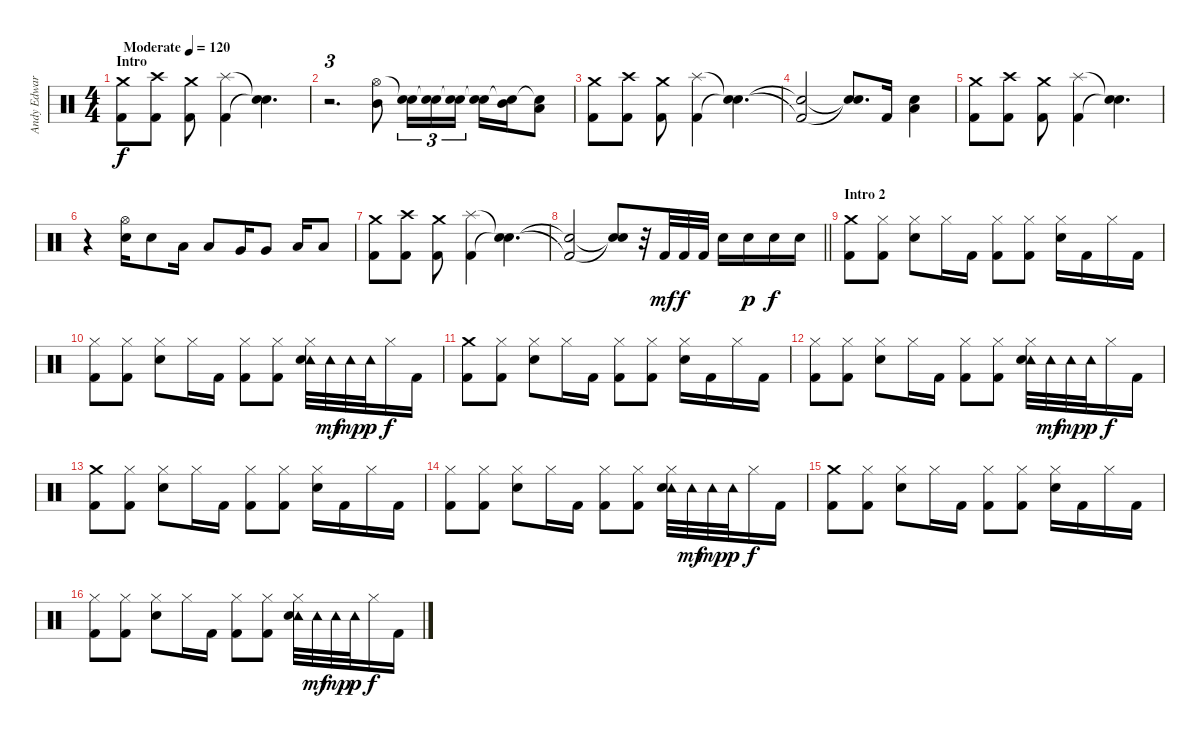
\track ("Andy Edwards" "Andy Edwar") {instrument percussion}
\staff {score}
\articulation defaults
\ts (4 4)
\section ("" "Intro")
\tempo (120 "Moderate")
\clef neutral
\ks c
("Crash medium (hit)" "Kick (hit) 2").8{dy f} ("Crash high (hit)" "Kick (hit) 2").8 ("Crash medium (hit)" "Kick (hit) 2").8 ("Splash (hit)" "Kick (hit) 2").4 ("Snare (hit)"{t} "Snare (hit)"{t}).4{d} |
r.2{d tu (3 2)} ("Hi-Hat (open)" "Mid Tom (hit)").8 ("Snare (hit)"{t} "Electric Snare (hit)").16{tu (3 2)} ("Snare (hit)"{t} "Electric Snare (hit)").16{tu (3 2)} ("Snare (hit)"{t} "Electric Snare (hit)").16{tu (3 2)} ("Snare (hit)"{t} "Electric Snare (hit)").16 ("Snare (hit)"{t} "Mid Tom (hit)").16 ("Snare (hit)"{t} "Low Tom (hit)").8 |
("Crash medium (hit)" "Kick (hit) 2").8 ("Crash high (hit)" "Kick (hit) 2").8 ("Crash medium (hit)" "Kick (hit) 2").8 ("Splash (hit)" "Kick (hit) 2").4 ("Snare (hit)"{t} "Snare (hit)"{t}).4{d} |
("Snare (hit)"{t} "Kick (hit) 2"{t}).2 ("Snare (hit)"{t} "Snare (hit)"{t}).8{d} "Kick (hit) 2".16 ("Low Floor Tom (hit)" "Electric Snare (hit)").4 |
("Crash medium (hit)" "Kick (hit) 2").8 ("Crash high (hit)" "Kick (hit) 2").8 ("Crash medium (hit)" "Kick (hit) 2").8 ("Splash (hit)" "Kick (hit) 2").4 ("Snare (hit)"{t} "Snare (hit)"{t}).4{d} |
r.4 ("Hi-Hat (open)" "Electric Snare (hit)").16 "Electric Snare (hit)".8 "Low Tom (hit)".16 "Low Tom (hit)".8 "Very Low Tom (hit)".16 "Very Low Tom (hit)".8 "Low Floor Tom (hit)".16 "Low Floor Tom (hit)".8 |
("Crash medium (hit)" "Kick (hit) 2").8 ("Crash high (hit)" "Kick (hit) 2").8 ("Crash medium (hit)" "Kick (hit) 2").8 ("Splash (hit)" "Kick (hit) 2").4 ("Snare (hit)"{t} "Snare (hit)"{t}).4{d} |
\barLineRight lightlight
("Snare (hit)"{t} "Kick (hit) 2"{t}).2 ("Snare (hit)"{t} "Snare (hit)"{t}).8 r.32 "Kick (hit) 2".32{dy mf} "Kick (hit) 2".32{dy f} "Kick (hit) 2".32 "Electric Snare (hit)".16 "Electric Snare (hit)".16{dy p} "Electric Snare (hit)".16{dy f} "Electric Snare (hit)".16 |
\section ("" "Intro 2")
("Crash medium (hit)" "Kick (hit) 2").8 ("Hi-Hat (closed)" "Kick (hit) 2").8 ("Hi-Hat (closed)" "Electric Snare (hit)").8 "Hi-Hat (closed)".16 "Kick (hit) 2".16 ("Hi-Hat (closed)" "Kick (hit) 2").8 ("Hi-Hat (closed)" "Kick (hit) 2").8 ("Hi-Hat (closed)" "Electric Snare (hit)").16 "Kick (hit) 2".16 "Hi-Hat (closed)".16 "Kick (hit) 2".16 |
("Hi-Hat (closed)" "Kick (hit) 2").8 ("Hi-Hat (closed)" "Kick (hit) 2").8 ("Hi-Hat (closed)" "Electric Snare (hit)").8 "Hi-Hat (closed)".16 "Kick (hit) 2".16 ("Hi-Hat (closed)" "Kick (hit) 2").8 ("Hi-Hat (closed)" "Kick (hit) 2").8 ("Hi-Hat (closed)" "Tambourine (hit)" "Electric Snare (hit)").32 "Tambourine (hit)".32{dy mf} "Tambourine (hit)".32{dy mp} "Tambourine (hit)".32{dy p} "Hi-Hat (closed)".16{dy f} "Kick (hit) 2".16 |
("Crash medium (hit)" "Kick (hit) 2").8 ("Hi-Hat (closed)" "Kick (hit) 2").8 ("Hi-Hat (closed)" "Electric Snare (hit)").8 "Hi-Hat (closed)".16 "Kick (hit) 2".16 ("Hi-Hat (closed)" "Kick (hit) 2").8 ("Hi-Hat (closed)" "Kick (hit) 2").8 ("Hi-Hat (closed)" "Electric Snare (hit)").16 "Kick (hit) 2".16 "Hi-Hat (closed)".16 "Kick (hit) 2".16 |
("Hi-Hat (closed)" "Kick (hit) 2").8 ("Hi-Hat (closed)" "Kick (hit) 2").8 ("Hi-Hat (closed)" "Electric Snare (hit)").8 "Hi-Hat (closed)".16 "Kick (hit) 2".16 ("Hi-Hat (closed)" "Kick (hit) 2").8 ("Hi-Hat (closed)" "Kick (hit) 2").8 ("Hi-Hat (closed)" "Tambourine (hit)" "Electric Snare (hit)").32 "Tambourine (hit)".32{dy mf} "Tambourine (hit)".32{dy mp} "Tambourine (hit)".32{dy p} "Hi-Hat (closed)".16{dy f} "Kick (hit) 2".16 |
("Crash medium (hit)" "Kick (hit) 2").8 ("Hi-Hat (closed)" "Kick (hit) 2").8 ("Hi-Hat (closed)" "Electric Snare (hit)").8 "Hi-Hat (closed)".16 "Kick (hit) 2".16 ("Hi-Hat (closed)" "Kick (hit) 2").8 ("Hi-Hat (closed)" "Kick (hit) 2").8 ("Hi-Hat (closed)" "Electric Snare (hit)").16 "Kick (hit) 2".16 "Hi-Hat (closed)".16 "Kick (hit) 2".16 |
("Hi-Hat (closed)" "Kick (hit) 2").8 ("Hi-Hat (closed)" "Kick (hit) 2").8 ("Hi-Hat (closed)" "Electric Snare (hit)").8 "Hi-Hat (closed)".16 "Kick (hit) 2".16 ("Hi-Hat (closed)" "Kick (hit) 2").8 ("Hi-Hat (closed)" "Kick (hit) 2").8 ("Hi-Hat (closed)" "Tambourine (hit)" "Electric Snare (hit)").32 "Tambourine (hit)".32{dy mf} "Tambourine (hit)".32{dy mp} "Tambourine (hit)".32{dy p} "Hi-Hat (closed)".16{dy f} "Kick (hit) 2".16 |
("Crash medium (hit)" "Kick (hit) 2").8 ("Hi-Hat (closed)" "Kick (hit) 2").8 ("Hi-Hat (closed)" "Electric Snare (hit)").8 "Hi-Hat (closed)".16 "Kick (hit) 2".16 ("Hi-Hat (closed)" "Kick (hit) 2").8 ("Hi-Hat (closed)" "Kick (hit) 2").8 ("Hi-Hat (closed)" "Electric Snare (hit)").16 "Kick (hit) 2".16 "Hi-Hat (closed)".16 "Kick (hit) 2".16 |
("Hi-Hat (closed)" "Kick (hit) 2").8 ("Hi-Hat (closed)" "Kick (hit) 2").8 ("Hi-Hat (closed)" "Electric Snare (hit)").8 "Hi-Hat (closed)".16 "Kick (hit) 2".16 ("Hi-Hat (closed)" "Kick (hit) 2").8 ("Hi-Hat (closed)" "Kick (hit) 2").8 ("Hi-Hat (closed)" "Tambourine (hit)" "Electric Snare (hit)").32 "Tambourine (hit)".32{dy mf} "Tambourine (hit)".32{dy mp} "Tambourine (hit)".32{dy p} "Hi-Hat (closed)".16{dy f} "Kick (hit) 2".16
